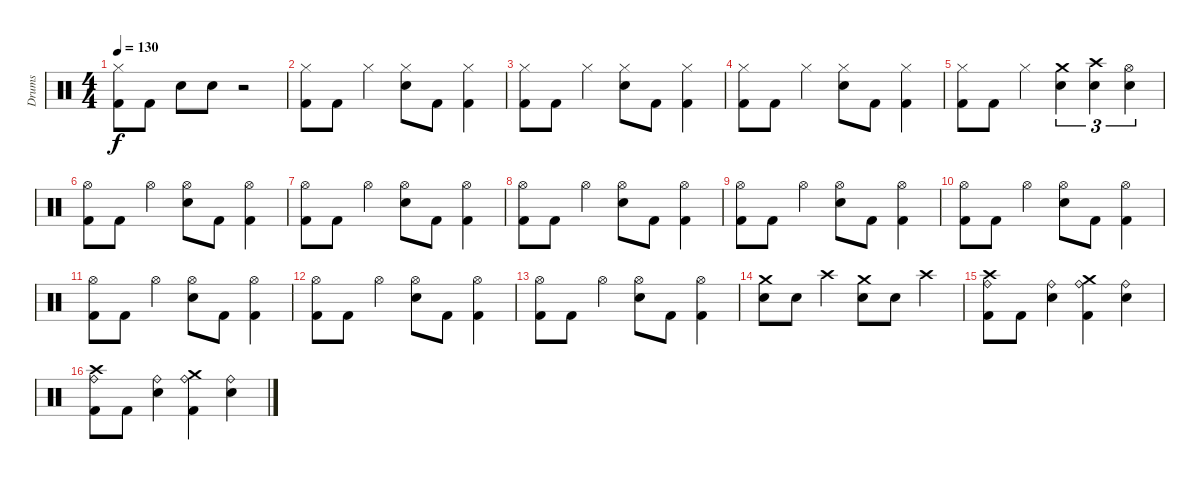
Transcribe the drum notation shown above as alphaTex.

\track ("Drums" "Drums") {instrument percussion}
\staff {score}
\articulation defaults
\ts (4 4)
\tempo 130
\clef neutral
\ks c
("Hi-Hat (closed)" "Kick (hit) 2").8{dy f} "Kick (hit) 2".8 "Electric Snare (hit)".8 "Electric Snare (hit)".8 r.2 |
("Hi-Hat (closed)" "Kick (hit) 2").8 "Kick (hit) 2".8 "Hi-Hat (closed)".4 ("Hi-Hat (closed)" "Electric Snare (hit)").8 "Kick (hit) 2".8 ("Hi-Hat (closed)" "Kick (hit) 2").4 |
("Hi-Hat (closed)" "Kick (hit) 2").8 "Kick (hit) 2".8 "Hi-Hat (closed)".4 ("Hi-Hat (closed)" "Electric Snare (hit)").8 "Kick (hit) 2".8 ("Hi-Hat (closed)" "Kick (hit) 2").4 |
("Hi-Hat (closed)" "Kick (hit) 2").8 "Kick (hit) 2".8 "Hi-Hat (closed)".4 ("Hi-Hat (closed)" "Electric Snare (hit)").8 "Kick (hit) 2".8 ("Hi-Hat (closed)" "Kick (hit) 2").4 |
("Hi-Hat (closed)" "Kick (hit) 2").8 "Kick (hit) 2".8 "Hi-Hat (closed)".4 ("Crash medium (hit)" "Electric Snare (hit)").4{tu (3 2)} ("Crash high (hit)" "Electric Snare (hit)").4{tu (3 2)} ("Hi-Hat (open)" "Electric Snare (hit)").4{tu (3 2)} |
("Hi-Hat (open)" "Kick (hit) 2").8 "Kick (hit) 2".8 "Hi-Hat (open)".4 ("Hi-Hat (open)" "Electric Snare (hit)").8 "Kick (hit) 2".8 ("Hi-Hat (open)" "Kick (hit) 2").4 |
("Hi-Hat (open)" "Kick (hit) 2").8 "Kick (hit) 2".8 "Hi-Hat (open)".4 ("Hi-Hat (open)" "Electric Snare (hit)").8 "Kick (hit) 2".8 ("Hi-Hat (open)" "Kick (hit) 2").4 |
("Hi-Hat (open)" "Kick (hit) 2").8 "Kick (hit) 2".8 "Hi-Hat (open)".4 ("Hi-Hat (open)" "Electric Snare (hit)").8 "Kick (hit) 2".8 ("Hi-Hat (open)" "Kick (hit) 2").4 |
("Hi-Hat (open)" "Kick (hit) 2").8 "Kick (hit) 2".8 "Hi-Hat (open)".4 ("Hi-Hat (open)" "Electric Snare (hit)").8 "Kick (hit) 2".8 ("Hi-Hat (open)" "Kick (hit) 2").4 |
("Hi-Hat (open)" "Kick (hit) 2").8 "Kick (hit) 2".8 "Hi-Hat (open)".4 ("Hi-Hat (open)" "Electric Snare (hit)").8 "Kick (hit) 2".8 ("Hi-Hat (open)" "Kick (hit) 2").4 |
("Hi-Hat (open)" "Kick (hit) 2").8 "Kick (hit) 2".8 "Hi-Hat (open)".4 ("Hi-Hat (open)" "Electric Snare (hit)").8 "Kick (hit) 2".8 ("Hi-Hat (open)" "Kick (hit) 2").4 |
("Hi-Hat (open)" "Kick (hit) 2").8 "Kick (hit) 2".8 "Hi-Hat (open)".4 ("Hi-Hat (open)" "Electric Snare (hit)").8 "Kick (hit) 2".8 ("Hi-Hat (open)" "Kick (hit) 2").4 |
("Hi-Hat (open)" "Kick (hit) 2").8 "Kick (hit) 2".8 "Hi-Hat (open)".4 ("Hi-Hat (open)" "Electric Snare (hit)").8 "Kick (hit) 2".8 ("Hi-Hat (open)" "Kick (hit) 2").4 |
("Crash medium (hit)" "Electric Snare (hit)").8 "Electric Snare (hit)".8 "Crash high (hit)".4 ("Crash medium (hit)" "Electric Snare (hit)").8 "Electric Snare (hit)".8 "Crash high (hit)".4 |
("Crash high (hit)" "Ride (bell)" "Kick (hit) 2").8 "Kick (hit) 2".8 ("Ride (bell)" "Electric Snare (hit)").4 ("Crash medium (hit)" "Ride (bell)" "Kick (hit) 2").4 ("Ride (bell)" "Electric Snare (hit)").4 |
("Crash high (hit)" "Ride (bell)" "Kick (hit) 2").8 "Kick (hit) 2".8 ("Ride (bell)" "Electric Snare (hit)").4 ("Crash medium (hit)" "Ride (bell)" "Kick (hit) 2").4 ("Ride (bell)" "Electric Snare (hit)").4
